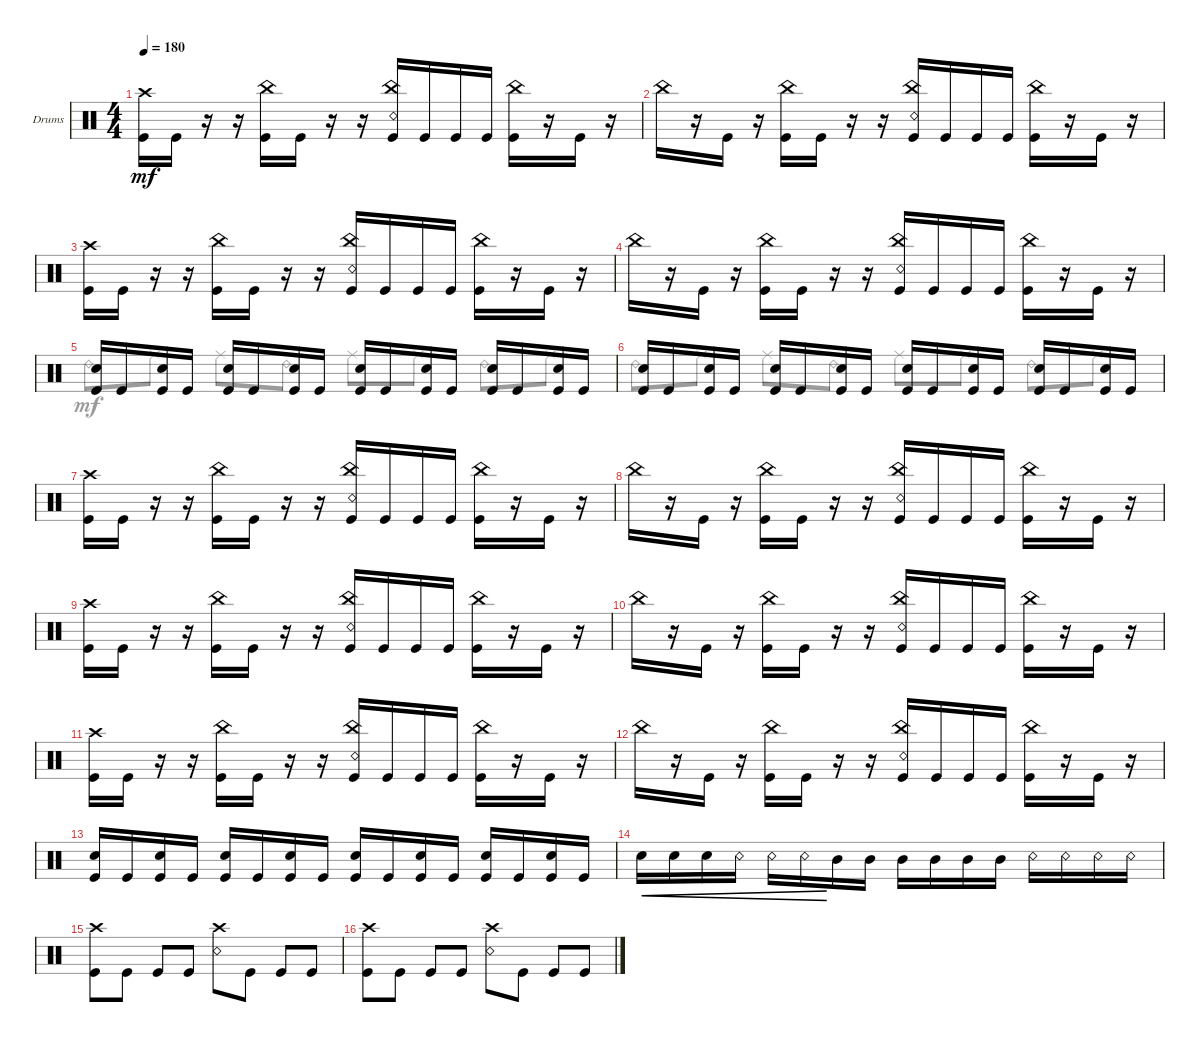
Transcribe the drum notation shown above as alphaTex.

\defaultSystemsLayout 4
\bracketExtendMode groupsimilarinstruments
\firstSystemTrackNameOrientation horizontal
\otherSystemsTrackNameOrientation horizontal
\track ("Drumkit" "Drums") {instrument percussion}
\staff {score}
\articulation defaults
\voice
\ts (4 4)
\tempo 180
\clef neutral
\ks c
("Kick (hit)" "Crash high (hit)").16{dy mf} "Kick (hit)".16 r.16 r.16 ("Kick (hit)" "China (hit)").16 "Kick (hit)".16 r.16 r.16 ("Kick (hit)" "Snare (rim shot)" "China (hit)").16 "Kick (hit)".16 "Kick (hit)".16 "Kick (hit)".16 ("Kick (hit)" "China (hit)").16 r.16 "Kick (hit)".16 r.16 |
"China (hit)".16 r.16 "Kick (hit)".16 r.16 ("China (hit)" "Kick (hit)").16 "Kick (hit)".16 r.16 r.16 ("China (hit)" "Snare (rim shot)" "Kick (hit)").16 "Kick (hit)".16 "Kick (hit)".16 "Kick (hit)".16 ("China (hit)" "Kick (hit)").16 r.16 "Kick (hit)".16 r.16 |
("Kick (hit)" "Crash high (hit)").16 "Kick (hit)".16 r.16 r.16 ("Kick (hit)" "China (hit)").16 "Kick (hit)".16 r.16 r.16 ("Kick (hit)" "Snare (rim shot)" "China (hit)").16 "Kick (hit)".16 "Kick (hit)".16 "Kick (hit)".16 ("Kick (hit)" "China (hit)").16 r.16 "Kick (hit)".16 r.16 |
"China (hit)".16 r.16 "Kick (hit)".16 r.16 ("China (hit)" "Kick (hit)").16 "Kick (hit)".16 r.16 r.16 ("China (hit)" "Snare (rim shot)" "Kick (hit)").16 "Kick (hit)".16 "Kick (hit)".16 "Kick (hit)".16 ("China (hit)" "Kick (hit)").16 r.16 "Kick (hit)".16 r.16 |
("Kick (hit)" "Snare (hit) 2").16 "Kick (hit)".16 ("Kick (hit)" "Snare (hit) 2").16 "Kick (hit)".16 ("Kick (hit)" "Snare (hit) 2").16 "Kick (hit)".16 ("Kick (hit)" "Snare (hit) 2").16 "Kick (hit)".16 ("Kick (hit)" "Snare (hit) 2").16 "Kick (hit)".16 ("Kick (hit)" "Snare (hit) 2").16 "Kick (hit)".16 ("Kick (hit)" "Snare (hit) 2").16 "Kick (hit)".16 ("Kick (hit)" "Snare (hit) 2").16 "Kick (hit)".16 |
("Kick (hit)" "Snare (hit) 2").16 "Kick (hit)".16 ("Kick (hit)" "Snare (hit) 2").16 "Kick (hit)".16 ("Kick (hit)" "Snare (hit) 2").16 "Kick (hit)".16 ("Kick (hit)" "Snare (hit) 2").16 "Kick (hit)".16 ("Kick (hit)" "Snare (hit) 2").16 "Kick (hit)".16 ("Kick (hit)" "Snare (hit) 2").16 "Kick (hit)".16 ("Kick (hit)" "Snare (hit) 2").16 "Kick (hit)".16 ("Kick (hit)" "Snare (hit) 2").16 "Kick (hit)".16 |
("Kick (hit)" "Crash high (hit)").16 "Kick (hit)".16 r.16 r.16 ("Kick (hit)" "China (hit)").16 "Kick (hit)".16 r.16 r.16 ("Kick (hit)" "Snare (rim shot)" "China (hit)").16 "Kick (hit)".16 "Kick (hit)".16 "Kick (hit)".16 ("Kick (hit)" "China (hit)").16 r.16 "Kick (hit)".16 r.16 |
"China (hit)".16 r.16 "Kick (hit)".16 r.16 ("China (hit)" "Kick (hit)").16 "Kick (hit)".16 r.16 r.16 ("China (hit)" "Snare (rim shot)" "Kick (hit)").16 "Kick (hit)".16 "Kick (hit)".16 "Kick (hit)".16 ("China (hit)" "Kick (hit)").16 r.16 "Kick (hit)".16 r.16 |
("Kick (hit)" "Crash high (hit)").16 "Kick (hit)".16 r.16 r.16 ("Kick (hit)" "China (hit)").16 "Kick (hit)".16 r.16 r.16 ("Kick (hit)" "Snare (rim shot)" "China (hit)").16 "Kick (hit)".16 "Kick (hit)".16 "Kick (hit)".16 ("Kick (hit)" "China (hit)").16 r.16 "Kick (hit)".16 r.16 |
"China (hit)".16 r.16 "Kick (hit)".16 r.16 ("China (hit)" "Kick (hit)").16 "Kick (hit)".16 r.16 r.16 ("China (hit)" "Snare (rim shot)" "Kick (hit)").16 "Kick (hit)".16 "Kick (hit)".16 "Kick (hit)".16 ("China (hit)" "Kick (hit)").16 r.16 "Kick (hit)".16 r.16 |
("Kick (hit)" "Crash high (hit)").16 "Kick (hit)".16 r.16 r.16 ("Kick (hit)" "China (hit)").16 "Kick (hit)".16 r.16 r.16 ("Kick (hit)" "Snare (rim shot)" "China (hit)").16 "Kick (hit)".16 "Kick (hit)".16 "Kick (hit)".16 ("Kick (hit)" "China (hit)").16 r.16 "Kick (hit)".16 r.16 |
"China (hit)".16 r.16 "Kick (hit)".16 r.16 ("China (hit)" "Kick (hit)").16 "Kick (hit)".16 r.16 r.16 ("China (hit)" "Snare (rim shot)" "Kick (hit)").16 "Kick (hit)".16 "Kick (hit)".16 "Kick (hit)".16 ("China (hit)" "Kick (hit)").16 r.16 "Kick (hit)".16 r.16 |
("Kick (hit)" "Snare (hit) 2").16 "Kick (hit)".16 ("Kick (hit)" "Snare (hit) 2").16 "Kick (hit)".16 ("Kick (hit)" "Snare (hit) 2").16 "Kick (hit)".16 ("Kick (hit)" "Snare (hit) 2").16 "Kick (hit)".16 ("Kick (hit)" "Snare (hit) 2").16 "Kick (hit)".16 ("Kick (hit)" "Snare (hit) 2").16 "Kick (hit)".16 ("Kick (hit)" "Snare (hit) 2").16 "Kick (hit)".16 ("Kick (hit)" "Snare (hit) 2").16 "Kick (hit)".16 |
"Snare (hit) 2".16{cre} "Snare (hit) 2".16{cre} "Snare (hit) 2".16{cre} "Snare (rim shot)".16{cre} "Snare (rim shot)".16{cre} "Snare (rim shot)".16{cre} "Mid Tom (hit)".16 "Mid Tom (hit)".16 "Mid Tom (hit)".16 "Mid Tom (hit)".16 "Mid Tom (hit)".16 "Mid Tom (hit)".16 "Snare (rim shot)".16 "Snare (rim shot)".16 "Snare (rim shot)".16 "Snare (rim shot)".16 |
("Kick (hit)" "Crash high (hit)").8 "Kick (hit)".8 "Kick (hit)".8 "Kick (hit)".8 ("Crash high (hit)" "Snare (rim shot)").8 "Kick (hit)".8 "Kick (hit)".8 "Kick (hit)".8 |
("Kick (hit)" "Crash high (hit)").8 "Kick (hit)".8 "Kick (hit)".8 "Kick (hit)".8 ("Crash high (hit)" "Snare (rim shot)").8 "Kick (hit)".8 "Kick (hit)".8 "Kick (hit)".8
\voice
\clef neutral
\ottava regular
\simile none
\ks c
|
|
|
|
"Ride (bell) 2".8 "Ride (middle)".8 "Ride (middle)".8 "Ride (bell) 2".8 "Ride (middle)".8 "Ride (middle)".8 "Ride (bell) 2".8 "Ride (middle)".8 |
"Ride (bell) 2".8 "Ride (middle)".8 "Ride (middle)".8 "Ride (bell) 2".8 "Ride (middle)".8 "Ride (middle)".8 "Ride (bell) 2".8 "Ride (middle)".8 |
|
|
|
|
|
|
|
|
|
